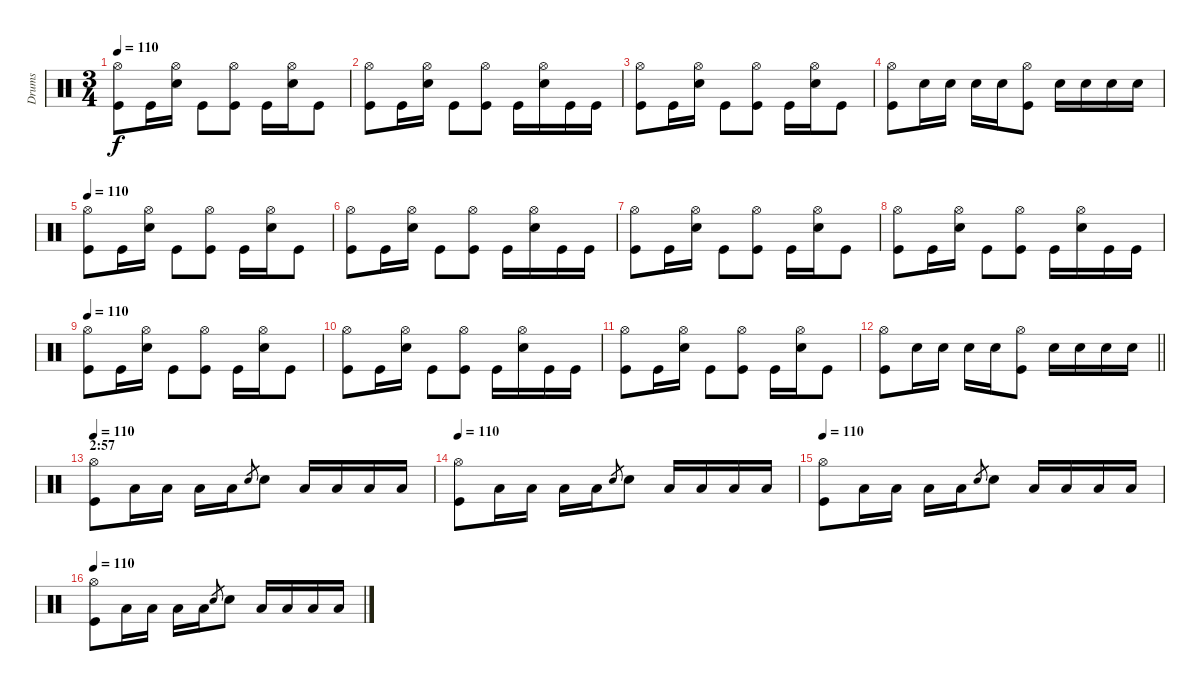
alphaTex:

\track ("Drums" "Drums") {instrument percussion}
\staff {score}
\articulation defaults
\ts (3 4)
\tempo 110
\clef neutral
\ks c
("Hi-Hat (open)" "Kick (hit)").8{dy f} "Kick (hit)".16 ("Electric Snare (hit)" "Hi-Hat (open)").16 "Kick (hit)".8 ("Hi-Hat (open)" "Kick (hit)").8 "Kick (hit)".16 ("Electric Snare (hit)" "Hi-Hat (open)").16 "Kick (hit)".8 |
("Hi-Hat (open)" "Kick (hit)").8 "Kick (hit)".16 ("Electric Snare (hit)" "Hi-Hat (open)").16 "Kick (hit)".8 ("Hi-Hat (open)" "Kick (hit)").8 "Kick (hit)".16 ("Electric Snare (hit)" "Hi-Hat (open)").16 "Kick (hit)".16 "Kick (hit)".16 |
("Hi-Hat (open)" "Kick (hit)").8 "Kick (hit)".16 ("Electric Snare (hit)" "Hi-Hat (open)").16 "Kick (hit)".8 ("Hi-Hat (open)" "Kick (hit)").8 "Kick (hit)".16 ("Electric Snare (hit)" "Hi-Hat (open)").16 "Kick (hit)".8 |
("Hi-Hat (open)" "Kick (hit)").8 "Electric Snare (hit)".16 "Electric Snare (hit)".16 "Electric Snare (hit)".16 "Electric Snare (hit)".16 ("Hi-Hat (open)" "Kick (hit)").8 "Electric Snare (hit)".16 "Electric Snare (hit)".16 "Electric Snare (hit)".16 "Electric Snare (hit)".16 |
\tempo 110
("Hi-Hat (open)" "Kick (hit)").8 "Kick (hit)".16 ("Electric Snare (hit)" "Hi-Hat (open)").16 "Kick (hit)".8 ("Hi-Hat (open)" "Kick (hit)").8 "Kick (hit)".16 ("Electric Snare (hit)" "Hi-Hat (open)").16 "Kick (hit)".8 |
("Hi-Hat (open)" "Kick (hit)").8 "Kick (hit)".16 ("Electric Snare (hit)" "Hi-Hat (open)").16 "Kick (hit)".8 ("Hi-Hat (open)" "Kick (hit)").8 "Kick (hit)".16 ("Electric Snare (hit)" "Hi-Hat (open)").16 "Kick (hit)".16 "Kick (hit)".16 |
("Hi-Hat (open)" "Kick (hit)").8 "Kick (hit)".16 ("Electric Snare (hit)" "Hi-Hat (open)").16 "Kick (hit)".8 ("Hi-Hat (open)" "Kick (hit)").8 "Kick (hit)".16 ("Electric Snare (hit)" "Hi-Hat (open)").16 "Kick (hit)".8 |
("Hi-Hat (open)" "Kick (hit)").8 "Kick (hit)".16 ("Electric Snare (hit)" "Hi-Hat (open)").16 "Kick (hit)".8 ("Hi-Hat (open)" "Kick (hit)").8 "Kick (hit)".16 ("Electric Snare (hit)" "Hi-Hat (open)").16 "Kick (hit)".16 "Kick (hit)".16 |
\tempo 110
("Hi-Hat (open)" "Kick (hit)").8 "Kick (hit)".16 ("Electric Snare (hit)" "Hi-Hat (open)").16 "Kick (hit)".8 ("Hi-Hat (open)" "Kick (hit)").8 "Kick (hit)".16 ("Electric Snare (hit)" "Hi-Hat (open)").16 "Kick (hit)".8 |
("Hi-Hat (open)" "Kick (hit)").8 "Kick (hit)".16 ("Electric Snare (hit)" "Hi-Hat (open)").16 "Kick (hit)".8 ("Hi-Hat (open)" "Kick (hit)").8 "Kick (hit)".16 ("Electric Snare (hit)" "Hi-Hat (open)").16 "Kick (hit)".16 "Kick (hit)".16 |
("Hi-Hat (open)" "Kick (hit)").8 "Kick (hit)".16 ("Electric Snare (hit)" "Hi-Hat (open)").16 "Kick (hit)".8 ("Hi-Hat (open)" "Kick (hit)").8 "Kick (hit)".16 ("Electric Snare (hit)" "Hi-Hat (open)").16 "Kick (hit)".8 |
\barLineRight lightlight
("Hi-Hat (open)" "Kick (hit)").8 "Electric Snare (hit)".16 "Electric Snare (hit)".16 "Electric Snare (hit)".16 "Electric Snare (hit)".16 ("Hi-Hat (open)" "Kick (hit)").8 "Electric Snare (hit)".16 "Electric Snare (hit)".16 "Electric Snare (hit)".16 "Electric Snare (hit)".16 |
\section ("" "2:57")
\tempo 110
("Hi-Hat (open)" "Kick (hit)").8 "Low Floor Tom (hit)".16 "Low Floor Tom (hit)".16 "Low Floor Tom (hit)".16 "Low Floor Tom (hit)".16 "Electric Snare (hit)".8{gr} "Electric Snare (hit)".8 "Low Floor Tom (hit)".16 "Low Floor Tom (hit)".16 "Low Floor Tom (hit)".16 "Low Floor Tom (hit)".16 |
\tempo 110
("Hi-Hat (open)" "Kick (hit)").8 "Low Floor Tom (hit)".16 "Low Floor Tom (hit)".16 "Low Floor Tom (hit)".16 "Low Floor Tom (hit)".16 "Electric Snare (hit)".8{gr} "Electric Snare (hit)".8 "Low Floor Tom (hit)".16 "Low Floor Tom (hit)".16 "Low Floor Tom (hit)".16 "Low Floor Tom (hit)".16 |
\tempo 110
("Hi-Hat (open)" "Kick (hit)").8 "Low Floor Tom (hit)".16 "Low Floor Tom (hit)".16 "Low Floor Tom (hit)".16 "Low Floor Tom (hit)".16 "Electric Snare (hit)".8{gr} "Electric Snare (hit)".8 "Low Floor Tom (hit)".16 "Low Floor Tom (hit)".16 "Low Floor Tom (hit)".16 "Low Floor Tom (hit)".16 |
\tempo 110
("Hi-Hat (open)" "Kick (hit)").8 "Low Floor Tom (hit)".16 "Low Floor Tom (hit)".16 "Low Floor Tom (hit)".16 "Low Floor Tom (hit)".16 "Electric Snare (hit)".8{gr} "Electric Snare (hit)".8 "Low Floor Tom (hit)".16 "Low Floor Tom (hit)".16 "Low Floor Tom (hit)".16 "Low Floor Tom (hit)".16
